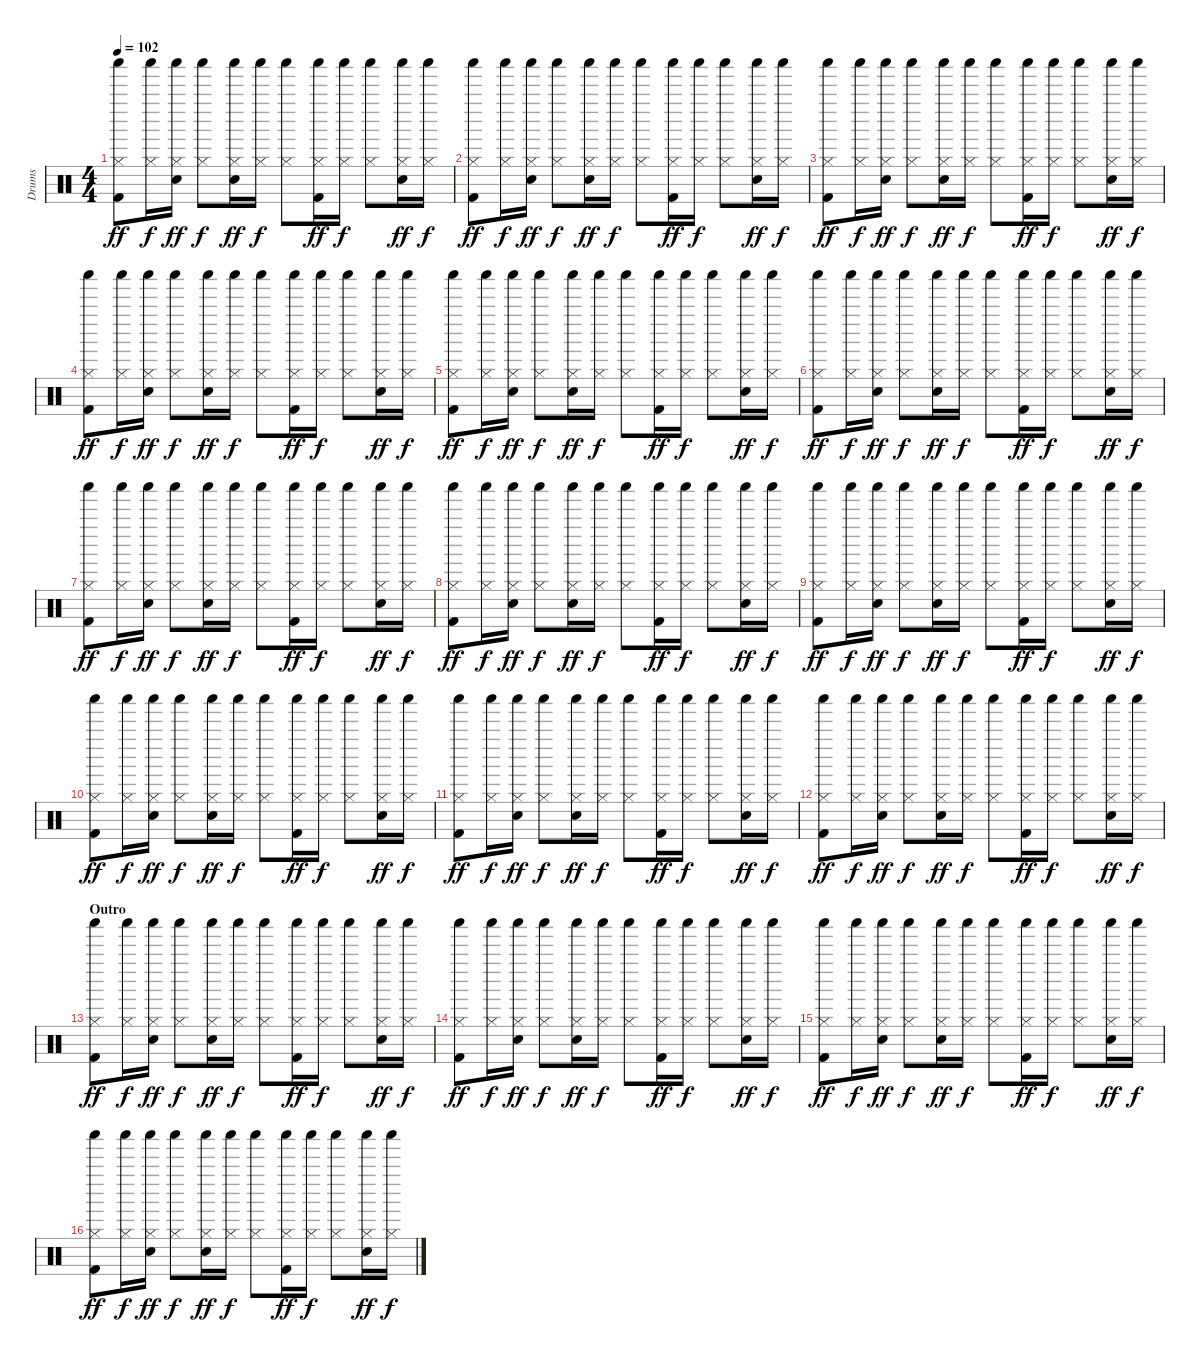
\track ("Drums" "Drums") {instrument percussion}
\staff {score}
\articulation defaults
\ts (4 4)
\tempo 102
\clef neutral
\ks c
("Hi-Hat (closed)" "Shaker (hit)" "Kick (hit) 2").8{dy ff} ("Hi-Hat (closed)" "Shaker (hit)").16{dy f} ("Hi-Hat (closed)" "Shaker (hit)" "Snare (hit) 2").16{dy ff} ("Hi-Hat (closed)" "Shaker (hit)").8{dy f} ("Hi-Hat (closed)" "Shaker (hit)" "Snare (hit) 2").16{dy ff} ("Hi-Hat (closed)" "Shaker (hit)").16{dy f} ("Hi-Hat (closed)" "Shaker (hit)").8 ("Hi-Hat (closed)" "Shaker (hit)" "Kick (hit) 2").16{dy ff} ("Hi-Hat (closed)" "Shaker (hit)").16{dy f} ("Hi-Hat (closed)" "Shaker (hit)").8 ("Hi-Hat (closed)" "Shaker (hit)" "Snare (hit) 2").16{dy ff} ("Hi-Hat (closed)" "Shaker (hit)").16{dy f} |
("Hi-Hat (closed)" "Shaker (hit)" "Kick (hit) 2").8{dy ff} ("Hi-Hat (closed)" "Shaker (hit)").16{dy f} ("Hi-Hat (closed)" "Shaker (hit)" "Snare (hit) 2").16{dy ff} ("Hi-Hat (closed)" "Shaker (hit)").8{dy f} ("Hi-Hat (closed)" "Shaker (hit)" "Snare (hit) 2").16{dy ff} ("Hi-Hat (closed)" "Shaker (hit)").16{dy f} ("Hi-Hat (closed)" "Shaker (hit)").8 ("Hi-Hat (closed)" "Shaker (hit)" "Kick (hit) 2").16{dy ff} ("Hi-Hat (closed)" "Shaker (hit)").16{dy f} ("Hi-Hat (closed)" "Shaker (hit)").8 ("Hi-Hat (closed)" "Shaker (hit)" "Snare (hit) 2").16{dy ff} ("Hi-Hat (closed)" "Shaker (hit)").16{dy f} |
("Hi-Hat (closed)" "Shaker (hit)" "Kick (hit) 2").8{dy ff} ("Hi-Hat (closed)" "Shaker (hit)").16{dy f} ("Hi-Hat (closed)" "Shaker (hit)" "Snare (hit) 2").16{dy ff} ("Hi-Hat (closed)" "Shaker (hit)").8{dy f} ("Hi-Hat (closed)" "Shaker (hit)" "Snare (hit) 2").16{dy ff} ("Hi-Hat (closed)" "Shaker (hit)").16{dy f} ("Hi-Hat (closed)" "Shaker (hit)").8 ("Hi-Hat (closed)" "Shaker (hit)" "Kick (hit) 2").16{dy ff} ("Hi-Hat (closed)" "Shaker (hit)").16{dy f} ("Hi-Hat (closed)" "Shaker (hit)").8 ("Hi-Hat (closed)" "Shaker (hit)" "Snare (hit) 2").16{dy ff} ("Hi-Hat (closed)" "Shaker (hit)").16{dy f} |
("Hi-Hat (closed)" "Shaker (hit)" "Kick (hit) 2").8{dy ff} ("Hi-Hat (closed)" "Shaker (hit)").16{dy f} ("Hi-Hat (closed)" "Shaker (hit)" "Snare (hit) 2").16{dy ff} ("Hi-Hat (closed)" "Shaker (hit)").8{dy f} ("Hi-Hat (closed)" "Shaker (hit)" "Snare (hit) 2").16{dy ff} ("Hi-Hat (closed)" "Shaker (hit)").16{dy f} ("Hi-Hat (closed)" "Shaker (hit)").8 ("Hi-Hat (closed)" "Shaker (hit)" "Kick (hit) 2").16{dy ff} ("Hi-Hat (closed)" "Shaker (hit)").16{dy f} ("Hi-Hat (closed)" "Shaker (hit)").8 ("Hi-Hat (closed)" "Shaker (hit)" "Snare (hit) 2").16{dy ff} ("Hi-Hat (closed)" "Shaker (hit)").16{dy f} |
("Hi-Hat (closed)" "Shaker (hit)" "Kick (hit) 2").8{dy ff} ("Hi-Hat (closed)" "Shaker (hit)").16{dy f} ("Hi-Hat (closed)" "Shaker (hit)" "Snare (hit) 2").16{dy ff} ("Hi-Hat (closed)" "Shaker (hit)").8{dy f} ("Hi-Hat (closed)" "Shaker (hit)" "Snare (hit) 2").16{dy ff} ("Hi-Hat (closed)" "Shaker (hit)").16{dy f} ("Hi-Hat (closed)" "Shaker (hit)").8 ("Hi-Hat (closed)" "Shaker (hit)" "Kick (hit) 2").16{dy ff} ("Hi-Hat (closed)" "Shaker (hit)").16{dy f} ("Hi-Hat (closed)" "Shaker (hit)").8 ("Hi-Hat (closed)" "Shaker (hit)" "Snare (hit) 2").16{dy ff} ("Hi-Hat (closed)" "Shaker (hit)").16{dy f} |
("Hi-Hat (closed)" "Shaker (hit)" "Kick (hit) 2").8{dy ff} ("Hi-Hat (closed)" "Shaker (hit)").16{dy f} ("Hi-Hat (closed)" "Shaker (hit)" "Snare (hit) 2").16{dy ff} ("Hi-Hat (closed)" "Shaker (hit)").8{dy f} ("Hi-Hat (closed)" "Shaker (hit)" "Snare (hit) 2").16{dy ff} ("Hi-Hat (closed)" "Shaker (hit)").16{dy f} ("Hi-Hat (closed)" "Shaker (hit)").8 ("Hi-Hat (closed)" "Shaker (hit)" "Kick (hit) 2").16{dy ff} ("Hi-Hat (closed)" "Shaker (hit)").16{dy f} ("Hi-Hat (closed)" "Shaker (hit)").8 ("Hi-Hat (closed)" "Shaker (hit)" "Snare (hit) 2").16{dy ff} ("Hi-Hat (closed)" "Shaker (hit)").16{dy f} |
("Hi-Hat (closed)" "Shaker (hit)" "Kick (hit) 2").8{dy ff} ("Hi-Hat (closed)" "Shaker (hit)").16{dy f} ("Hi-Hat (closed)" "Shaker (hit)" "Snare (hit) 2").16{dy ff} ("Hi-Hat (closed)" "Shaker (hit)").8{dy f} ("Hi-Hat (closed)" "Shaker (hit)" "Snare (hit) 2").16{dy ff} ("Hi-Hat (closed)" "Shaker (hit)").16{dy f} ("Hi-Hat (closed)" "Shaker (hit)").8 ("Hi-Hat (closed)" "Shaker (hit)" "Kick (hit) 2").16{dy ff} ("Hi-Hat (closed)" "Shaker (hit)").16{dy f} ("Hi-Hat (closed)" "Shaker (hit)").8 ("Hi-Hat (closed)" "Shaker (hit)" "Snare (hit) 2").16{dy ff} ("Hi-Hat (closed)" "Shaker (hit)").16{dy f} |
("Hi-Hat (closed)" "Shaker (hit)" "Kick (hit) 2").8{dy ff} ("Hi-Hat (closed)" "Shaker (hit)").16{dy f} ("Hi-Hat (closed)" "Shaker (hit)" "Snare (hit) 2").16{dy ff} ("Hi-Hat (closed)" "Shaker (hit)").8{dy f} ("Hi-Hat (closed)" "Shaker (hit)" "Snare (hit) 2").16{dy ff} ("Hi-Hat (closed)" "Shaker (hit)").16{dy f} ("Hi-Hat (closed)" "Shaker (hit)").8 ("Hi-Hat (closed)" "Shaker (hit)" "Kick (hit) 2").16{dy ff} ("Hi-Hat (closed)" "Shaker (hit)").16{dy f} ("Hi-Hat (closed)" "Shaker (hit)").8 ("Hi-Hat (closed)" "Shaker (hit)" "Snare (hit) 2").16{dy ff} ("Hi-Hat (closed)" "Shaker (hit)").16{dy f} |
("Hi-Hat (closed)" "Shaker (hit)" "Kick (hit) 2").8{dy ff} ("Hi-Hat (closed)" "Shaker (hit)").16{dy f} ("Hi-Hat (closed)" "Shaker (hit)" "Snare (hit) 2").16{dy ff} ("Hi-Hat (closed)" "Shaker (hit)").8{dy f} ("Hi-Hat (closed)" "Shaker (hit)" "Snare (hit) 2").16{dy ff} ("Hi-Hat (closed)" "Shaker (hit)").16{dy f} ("Hi-Hat (closed)" "Shaker (hit)").8 ("Hi-Hat (closed)" "Shaker (hit)" "Kick (hit) 2").16{dy ff} ("Hi-Hat (closed)" "Shaker (hit)").16{dy f} ("Hi-Hat (closed)" "Shaker (hit)").8 ("Hi-Hat (closed)" "Shaker (hit)" "Snare (hit) 2").16{dy ff} ("Hi-Hat (closed)" "Shaker (hit)").16{dy f} |
("Hi-Hat (closed)" "Shaker (hit)" "Kick (hit) 2").8{dy ff} ("Hi-Hat (closed)" "Shaker (hit)").16{dy f} ("Hi-Hat (closed)" "Shaker (hit)" "Snare (hit) 2").16{dy ff} ("Hi-Hat (closed)" "Shaker (hit)").8{dy f} ("Hi-Hat (closed)" "Shaker (hit)" "Snare (hit) 2").16{dy ff} ("Hi-Hat (closed)" "Shaker (hit)").16{dy f} ("Hi-Hat (closed)" "Shaker (hit)").8 ("Hi-Hat (closed)" "Shaker (hit)" "Kick (hit) 2").16{dy ff} ("Hi-Hat (closed)" "Shaker (hit)").16{dy f} ("Hi-Hat (closed)" "Shaker (hit)").8 ("Hi-Hat (closed)" "Shaker (hit)" "Snare (hit) 2").16{dy ff} ("Hi-Hat (closed)" "Shaker (hit)").16{dy f} |
("Hi-Hat (closed)" "Shaker (hit)" "Kick (hit) 2").8{dy ff} ("Hi-Hat (closed)" "Shaker (hit)").16{dy f} ("Hi-Hat (closed)" "Shaker (hit)" "Snare (hit) 2").16{dy ff} ("Hi-Hat (closed)" "Shaker (hit)").8{dy f} ("Hi-Hat (closed)" "Shaker (hit)" "Snare (hit) 2").16{dy ff} ("Hi-Hat (closed)" "Shaker (hit)").16{dy f} ("Hi-Hat (closed)" "Shaker (hit)").8 ("Hi-Hat (closed)" "Shaker (hit)" "Kick (hit) 2").16{dy ff} ("Hi-Hat (closed)" "Shaker (hit)").16{dy f} ("Hi-Hat (closed)" "Shaker (hit)").8 ("Hi-Hat (closed)" "Shaker (hit)" "Snare (hit) 2").16{dy ff} ("Hi-Hat (closed)" "Shaker (hit)").16{dy f} |
("Hi-Hat (closed)" "Shaker (hit)" "Kick (hit) 2").8{dy ff} ("Hi-Hat (closed)" "Shaker (hit)").16{dy f} ("Hi-Hat (closed)" "Shaker (hit)" "Snare (hit) 2").16{dy ff} ("Hi-Hat (closed)" "Shaker (hit)").8{dy f} ("Hi-Hat (closed)" "Shaker (hit)" "Snare (hit) 2").16{dy ff} ("Hi-Hat (closed)" "Shaker (hit)").16{dy f} ("Hi-Hat (closed)" "Shaker (hit)").8 ("Hi-Hat (closed)" "Shaker (hit)" "Kick (hit) 2").16{dy ff} ("Hi-Hat (closed)" "Shaker (hit)").16{dy f} ("Hi-Hat (closed)" "Shaker (hit)").8 ("Hi-Hat (closed)" "Shaker (hit)" "Snare (hit) 2").16{dy ff} ("Hi-Hat (closed)" "Shaker (hit)").16{dy f} |
\section ("" "Outro")
("Hi-Hat (closed)" "Shaker (hit)" "Kick (hit) 2").8{dy ff} ("Hi-Hat (closed)" "Shaker (hit)").16{dy f} ("Hi-Hat (closed)" "Shaker (hit)" "Snare (hit) 2").16{dy ff} ("Hi-Hat (closed)" "Shaker (hit)").8{dy f} ("Hi-Hat (closed)" "Shaker (hit)" "Snare (hit) 2").16{dy ff} ("Hi-Hat (closed)" "Shaker (hit)").16{dy f} ("Hi-Hat (closed)" "Shaker (hit)").8 ("Hi-Hat (closed)" "Shaker (hit)" "Kick (hit) 2").16{dy ff} ("Hi-Hat (closed)" "Shaker (hit)").16{dy f} ("Hi-Hat (closed)" "Shaker (hit)").8 ("Hi-Hat (closed)" "Shaker (hit)" "Snare (hit) 2").16{dy ff} ("Hi-Hat (closed)" "Shaker (hit)").16{dy f} |
("Hi-Hat (closed)" "Shaker (hit)" "Kick (hit) 2").8{dy ff} ("Hi-Hat (closed)" "Shaker (hit)").16{dy f} ("Hi-Hat (closed)" "Shaker (hit)" "Snare (hit) 2").16{dy ff} ("Hi-Hat (closed)" "Shaker (hit)").8{dy f} ("Hi-Hat (closed)" "Shaker (hit)" "Snare (hit) 2").16{dy ff} ("Hi-Hat (closed)" "Shaker (hit)").16{dy f} ("Hi-Hat (closed)" "Shaker (hit)").8 ("Hi-Hat (closed)" "Shaker (hit)" "Kick (hit) 2").16{dy ff} ("Hi-Hat (closed)" "Shaker (hit)").16{dy f} ("Hi-Hat (closed)" "Shaker (hit)").8 ("Hi-Hat (closed)" "Shaker (hit)" "Snare (hit) 2").16{dy ff} ("Hi-Hat (closed)" "Shaker (hit)").16{dy f} |
("Hi-Hat (closed)" "Shaker (hit)" "Kick (hit) 2").8{dy ff} ("Hi-Hat (closed)" "Shaker (hit)").16{dy f} ("Hi-Hat (closed)" "Shaker (hit)" "Snare (hit) 2").16{dy ff} ("Hi-Hat (closed)" "Shaker (hit)").8{dy f} ("Hi-Hat (closed)" "Shaker (hit)" "Snare (hit) 2").16{dy ff} ("Hi-Hat (closed)" "Shaker (hit)").16{dy f} ("Hi-Hat (closed)" "Shaker (hit)").8 ("Hi-Hat (closed)" "Shaker (hit)" "Kick (hit) 2").16{dy ff} ("Hi-Hat (closed)" "Shaker (hit)").16{dy f} ("Hi-Hat (closed)" "Shaker (hit)").8 ("Hi-Hat (closed)" "Shaker (hit)" "Snare (hit) 2").16{dy ff} ("Hi-Hat (closed)" "Shaker (hit)").16{dy f} |
("Hi-Hat (closed)" "Shaker (hit)" "Kick (hit) 2").8{dy ff} ("Hi-Hat (closed)" "Shaker (hit)").16{dy f} ("Hi-Hat (closed)" "Shaker (hit)" "Snare (hit) 2").16{dy ff} ("Hi-Hat (closed)" "Shaker (hit)").8{dy f} ("Hi-Hat (closed)" "Shaker (hit)" "Snare (hit) 2").16{dy ff} ("Hi-Hat (closed)" "Shaker (hit)").16{dy f} ("Hi-Hat (closed)" "Shaker (hit)").8 ("Hi-Hat (closed)" "Shaker (hit)" "Kick (hit) 2").16{dy ff} ("Hi-Hat (closed)" "Shaker (hit)").16{dy f} ("Hi-Hat (closed)" "Shaker (hit)").8 ("Hi-Hat (closed)" "Shaker (hit)" "Snare (hit) 2").16{dy ff} ("Hi-Hat (closed)" "Shaker (hit)").16{dy f}
